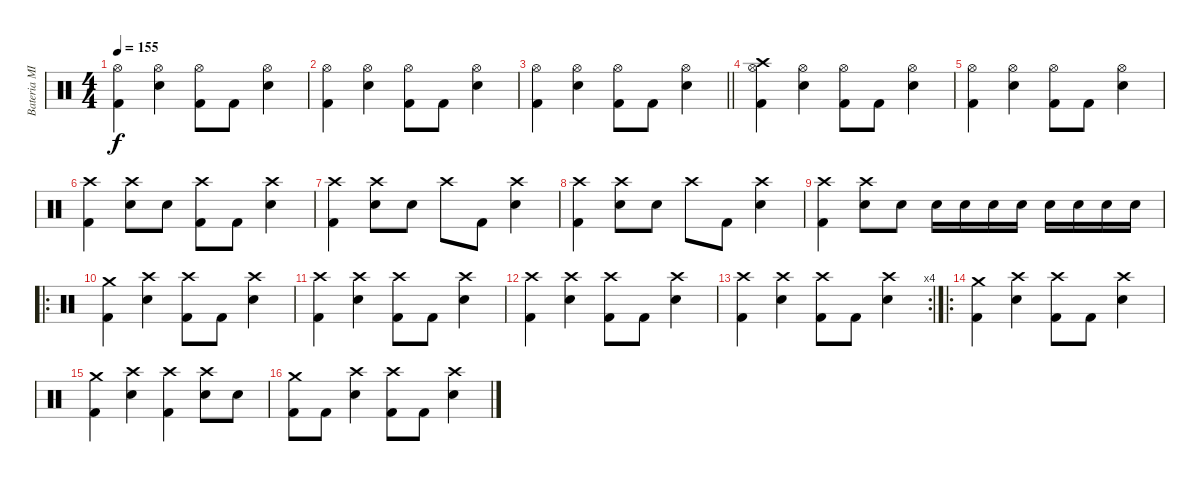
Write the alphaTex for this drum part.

\track ("Bateria MIDI" "Bateria MI") {instrument percussion bank 1}
\staff {score}
\articulation defaults
\ts (4 4)
\tempo 155
\clef neutral
\ks c
("Hi-Hat (open)" "Kick (hit) 2").4{dy f} ("Hi-Hat (open)" "Snare (hit) 2").4 ("Hi-Hat (open)" "Kick (hit) 2").8 "Kick (hit) 2".8 ("Hi-Hat (open)" "Snare (hit) 2").4 |
("Hi-Hat (open)" "Kick (hit) 2").4 ("Hi-Hat (open)" "Snare (hit) 2").4 ("Hi-Hat (open)" "Kick (hit) 2").8 "Kick (hit) 2".8 ("Hi-Hat (open)" "Snare (hit) 2").4 |
\barLineRight lightlight
("Hi-Hat (open)" "Kick (hit) 2").4 ("Hi-Hat (open)" "Snare (hit) 2").4 ("Hi-Hat (open)" "Kick (hit) 2").8 "Kick (hit) 2".8 ("Hi-Hat (open)" "Snare (hit) 2").4 |
("Hi-Hat (open)" "Crash high (hit)" "Kick (hit) 2").4 ("Hi-Hat (open)" "Snare (hit) 2").4 ("Hi-Hat (open)" "Kick (hit) 2").8 "Kick (hit) 2".8 ("Hi-Hat (open)" "Snare (hit) 2").4 |
("Hi-Hat (open)" "Kick (hit) 2").4 ("Hi-Hat (open)" "Snare (hit) 2").4 ("Hi-Hat (open)" "Kick (hit) 2").8 "Kick (hit) 2".8 ("Hi-Hat (open)" "Snare (hit) 2").4 |
("Crash high (hit)" "Kick (hit) 2").4 ("Crash high (hit)" "Snare (hit) 2").8 "Snare (hit) 2".8 ("Crash high (hit)" "Kick (hit) 2").8 "Kick (hit) 2".8 ("Crash high (hit)" "Snare (hit) 2").4 |
("Crash high (hit)" "Kick (hit) 2").4 ("Crash high (hit)" "Snare (hit) 2").8 "Snare (hit) 2".8 "Crash high (hit)".8 "Kick (hit) 2".8 ("Crash high (hit)" "Snare (hit) 2").4 |
("Crash high (hit)" "Kick (hit) 2").4 ("Crash high (hit)" "Snare (hit) 2").8 "Snare (hit) 2".8 "Crash high (hit)".8 "Kick (hit) 2".8 ("Crash high (hit)" "Snare (hit) 2").4 |
("Crash high (hit)" "Kick (hit) 2").4 ("Crash high (hit)" "Snare (hit) 2").8 "Snare (hit) 2".8 "Snare (hit) 2".16 "Snare (hit) 2".16 "Snare (hit) 2".16 "Snare (hit) 2".16 "Snare (hit) 2".16 "Snare (hit) 2".16 "Snare (hit) 2".16 "Snare (hit) 2".16 |
\ro
("Crash medium (hit)" "Kick (hit) 2").4 ("Crash high (hit)" "Snare (hit) 2").4 ("Crash high (hit)" "Kick (hit) 2").8 "Kick (hit) 2".8 ("Crash high (hit)" "Snare (hit) 2").4 |
("Crash high (hit)" "Kick (hit) 2").4 ("Crash high (hit)" "Snare (hit) 2").4 ("Crash high (hit)" "Kick (hit) 2").8 "Kick (hit) 2".8 ("Crash high (hit)" "Snare (hit) 2").4 |
("Crash high (hit)" "Kick (hit) 2").4 ("Crash high (hit)" "Snare (hit) 2").4 ("Crash high (hit)" "Kick (hit) 2").8 "Kick (hit) 2".8 ("Crash high (hit)" "Snare (hit) 2").4 |
\rc 4
("Crash high (hit)" "Kick (hit) 2").4 ("Crash high (hit)" "Snare (hit) 2").4 ("Crash high (hit)" "Kick (hit) 2").8 "Kick (hit) 2".8 ("Crash high (hit)" "Snare (hit) 2").4 |
\ro
("Crash medium (hit)" "Kick (hit) 2").4 ("Crash high (hit)" "Snare (hit) 2").4 ("Crash high (hit)" "Kick (hit) 2").8 "Kick (hit) 2".8 ("Crash high (hit)" "Snare (hit) 2").4 |
("Crash medium (hit)" "Kick (hit) 2").4 ("Crash high (hit)" "Snare (hit) 2").4 ("Crash high (hit)" "Kick (hit) 2").4 ("Crash high (hit)" "Snare (hit) 2").8 "Snare (hit) 2".8 |
("Crash medium (hit)" "Kick (hit) 2").8 "Kick (hit) 2".8 ("Crash high (hit)" "Snare (hit) 2").4 ("Crash high (hit)" "Kick (hit) 2").8 "Kick (hit) 2".8 ("Crash high (hit)" "Snare (hit) 2").4
